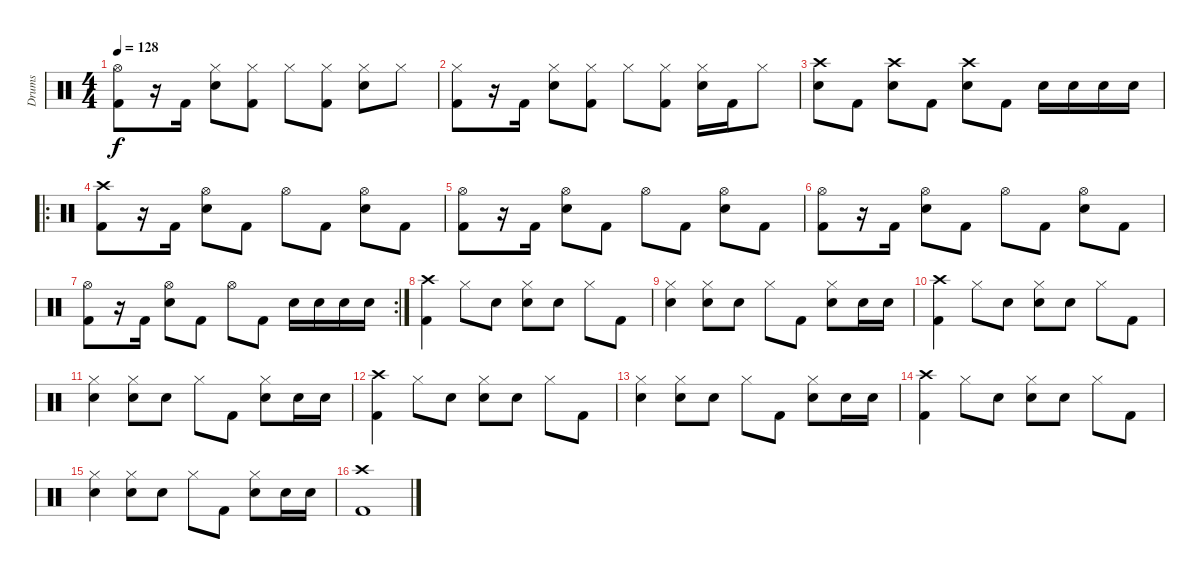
\track ("Drums" "Drums") {instrument percussion}
\staff {score}
\articulation defaults
\ts (4 4)
\tempo 128
\clef neutral
\ks c
("Hi-Hat (open)" "Kick (hit) 2").8{dy f} r.16 "Kick (hit) 2".16 ("Hi-Hat (closed)" "Electric Snare (hit)").8 ("Hi-Hat (closed)" "Kick (hit) 2").8 "Hi-Hat (closed)".8 ("Hi-Hat (closed)" "Kick (hit) 2").8 ("Hi-Hat (closed)" "Electric Snare (hit)").8 "Hi-Hat (closed)".8 |
("Hi-Hat (closed)" "Kick (hit) 2").8 r.16 "Kick (hit) 2".16 ("Hi-Hat (closed)" "Electric Snare (hit)").8 ("Hi-Hat (closed)" "Kick (hit) 2").8 "Hi-Hat (closed)".8 ("Hi-Hat (closed)" "Kick (hit) 2").8 ("Hi-Hat (closed)" "Electric Snare (hit)").16 "Kick (hit) 2".16 "Hi-Hat (closed)".8 |
("Crash high (hit)" "Electric Snare (hit)").8 "Kick (hit) 2".8 ("Crash high (hit)" "Electric Snare (hit)").8 "Kick (hit) 2".8 ("Crash high (hit)" "Electric Snare (hit)").8 "Kick (hit) 2".8 "Electric Snare (hit)".16 "Electric Snare (hit)".16 "Electric Snare (hit)".16 "Electric Snare (hit)".16 |
\ro
("Crash high (hit)" "Kick (hit) 2").8 r.16 "Kick (hit) 2".16 ("Hi-Hat (open)" "Electric Snare (hit)").8 "Kick (hit) 2".8 "Hi-Hat (open)".8 "Kick (hit) 2".8 ("Hi-Hat (open)" "Electric Snare (hit)").8 "Kick (hit) 2".8 |
("Hi-Hat (open)" "Kick (hit) 2").8 r.16 "Kick (hit) 2".16 ("Hi-Hat (open)" "Electric Snare (hit)").8 "Kick (hit) 2".8 "Hi-Hat (open)".8 "Kick (hit) 2".8 ("Hi-Hat (open)" "Electric Snare (hit)").8 "Kick (hit) 2".8 |
("Hi-Hat (open)" "Kick (hit) 2").8 r.16 "Kick (hit) 2".16 ("Hi-Hat (open)" "Electric Snare (hit)").8 "Kick (hit) 2".8 "Hi-Hat (open)".8 "Kick (hit) 2".8 ("Hi-Hat (open)" "Electric Snare (hit)").8 "Kick (hit) 2".8 |
\rc 2
("Hi-Hat (open)" "Kick (hit) 2").8 r.16 "Kick (hit) 2".16 ("Hi-Hat (open)" "Electric Snare (hit)").8 "Kick (hit) 2".8 "Hi-Hat (open)".8 "Kick (hit) 2".8 "Electric Snare (hit)".16 "Electric Snare (hit)".16 "Electric Snare (hit)".16 "Electric Snare (hit)".16 |
("Crash high (hit)" "Kick (hit) 2").4 "Hi-Hat (closed)".8 "Electric Snare (hit)".8 ("Hi-Hat (closed)" "Electric Snare (hit)").8 "Electric Snare (hit)".8 "Hi-Hat (closed)".8 "Kick (hit) 2".8 |
("Hi-Hat (closed)" "Electric Snare (hit)").4 ("Hi-Hat (closed)" "Electric Snare (hit)").8 "Electric Snare (hit)".8 "Hi-Hat (closed)".8 "Kick (hit) 2".8 ("Hi-Hat (closed)" "Electric Snare (hit)").8 "Electric Snare (hit)".16 "Electric Snare (hit)".16 |
("Crash high (hit)" "Kick (hit) 2").4 "Hi-Hat (closed)".8 "Electric Snare (hit)".8 ("Hi-Hat (closed)" "Electric Snare (hit)").8 "Electric Snare (hit)".8 "Hi-Hat (closed)".8 "Kick (hit) 2".8 |
("Hi-Hat (closed)" "Electric Snare (hit)").4 ("Hi-Hat (closed)" "Electric Snare (hit)").8 "Electric Snare (hit)".8 "Hi-Hat (closed)".8 "Kick (hit) 2".8 ("Hi-Hat (closed)" "Electric Snare (hit)").8 "Electric Snare (hit)".16 "Electric Snare (hit)".16 |
("Crash high (hit)" "Kick (hit) 2").4 "Hi-Hat (closed)".8 "Electric Snare (hit)".8 ("Hi-Hat (closed)" "Electric Snare (hit)").8 "Electric Snare (hit)".8 "Hi-Hat (closed)".8 "Kick (hit) 2".8 |
("Hi-Hat (closed)" "Electric Snare (hit)").4 ("Hi-Hat (closed)" "Electric Snare (hit)").8 "Electric Snare (hit)".8 "Hi-Hat (closed)".8 "Kick (hit) 2".8 ("Hi-Hat (closed)" "Electric Snare (hit)").8 "Electric Snare (hit)".16 "Electric Snare (hit)".16 |
("Crash high (hit)" "Kick (hit) 2").4 "Hi-Hat (closed)".8 "Electric Snare (hit)".8 ("Hi-Hat (closed)" "Electric Snare (hit)").8 "Electric Snare (hit)".8 "Hi-Hat (closed)".8 "Kick (hit) 2".8 |
("Hi-Hat (closed)" "Electric Snare (hit)").4 ("Hi-Hat (closed)" "Electric Snare (hit)").8 "Electric Snare (hit)".8 "Hi-Hat (closed)".8 "Kick (hit) 2".8 ("Hi-Hat (closed)" "Electric Snare (hit)").8 "Electric Snare (hit)".16 "Electric Snare (hit)".16 |
("Crash high (hit)" "Kick (hit) 2").1
